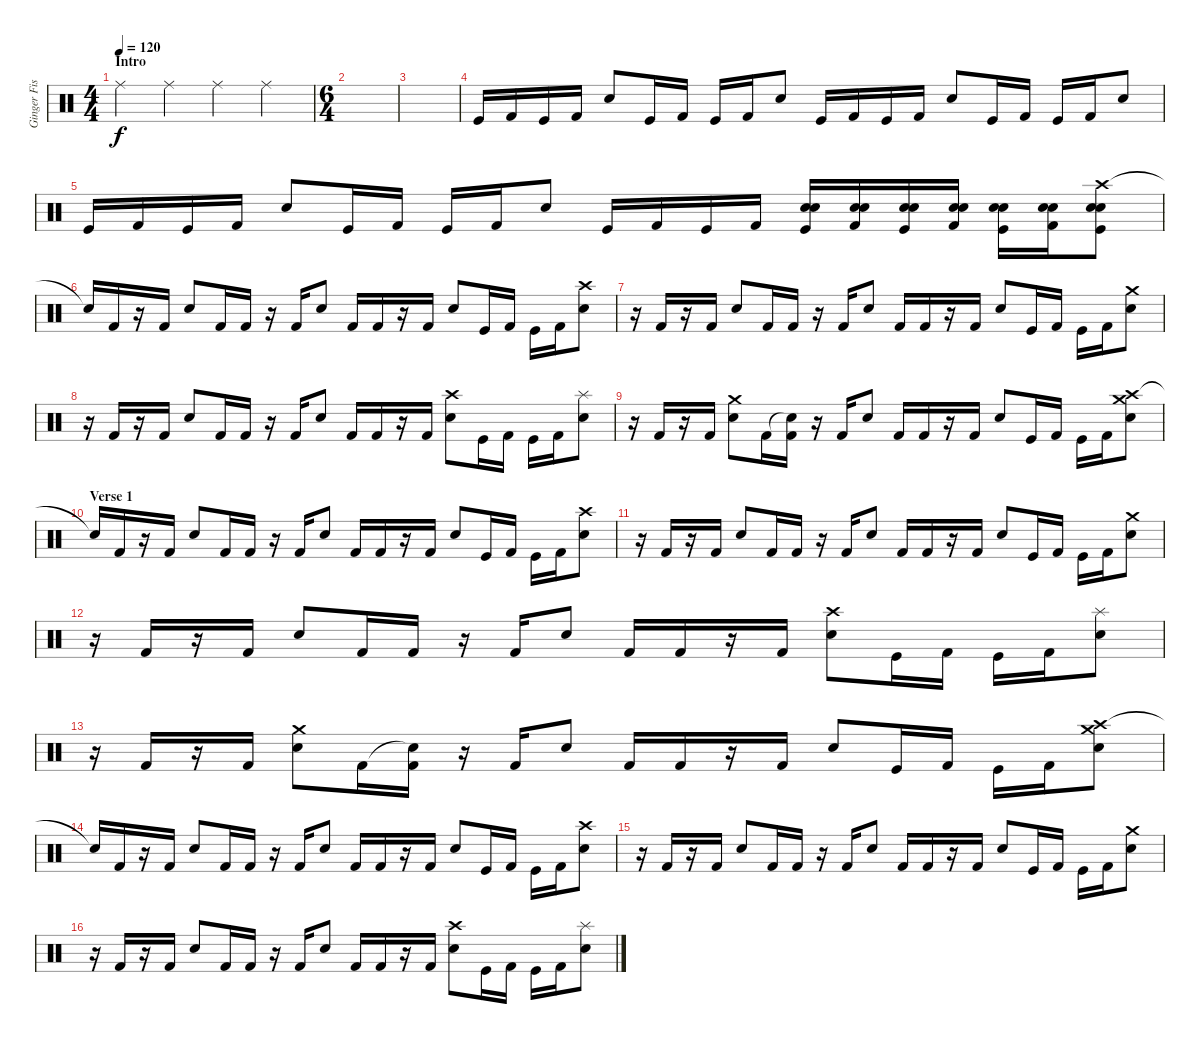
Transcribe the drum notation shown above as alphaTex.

\track ("Ginger Fish" "Ginger Fis") {instrument percussion}
\staff {score}
\articulation defaults
\ts (4 4)
\section ("" "Intro")
\tempo 120
\clef neutral
\ks c "Ride (middle)".4{dy f} "Ride (middle)".4 "Ride (middle)".4 "Ride (middle)".4
|
\ts (6 4)
|
|
"Kick (hit)".16 "Kick (hit) 2".16 "Kick (hit)".16 "Kick (hit) 2".16 "Snare (hit) 2".8 "Kick (hit)".16 "Kick (hit) 2".16 "Kick (hit)".16 "Kick (hit) 2".16 "Snare (hit) 2".8 "Kick (hit)".16 "Kick (hit) 2".16 "Kick (hit)".16 "Kick (hit) 2".16 "Snare (hit) 2".8 "Kick (hit)".16 "Kick (hit) 2".16 "Kick (hit)".16 "Kick (hit) 2".16 "Snare (hit) 2".8 |
"Kick (hit)".16 "Kick (hit) 2".16 "Kick (hit)".16 "Kick (hit) 2".16 "Snare (hit) 2".8 "Kick (hit)".16 "Kick (hit) 2".16 "Kick (hit)".16 "Kick (hit) 2".16 "Snare (hit) 2".8 "Kick (hit)".16 "Kick (hit) 2".16 "Kick (hit)".16 "Kick (hit) 2".16 ("Electric Snare (hit)" "Electric Snare (hit)" "Kick (hit)").16 ("Electric Snare (hit)" "Electric Snare (hit)" "Kick (hit) 2").16 ("Electric Snare (hit)" "Electric Snare (hit)" "Kick (hit)").16 ("Electric Snare (hit)" "Electric Snare (hit)" "Kick (hit) 2").16 ("Electric Snare (hit)" "Electric Snare (hit)" "Kick (hit)").16 ("Electric Snare (hit)" "Electric Snare (hit)" "Kick (hit) 2").16 ("Crash high (hit)" "Electric Snare (hit)" "Electric Snare (hit)" "Kick (hit)").8 |
"Snare (hit)"{t}.16 "Kick (hit) 2".16 r.16 "Kick (hit) 2".16 "Snare (hit) 2".8 "Kick (hit) 2".16 "Kick (hit) 2".16 r.16 "Kick (hit) 2".16 "Snare (hit) 2".8 "Kick (hit) 2".16 "Kick (hit) 2".16 r.16 "Kick (hit) 2".16 "Snare (hit) 2".8 "Kick (hit)".16 "Kick (hit) 2".16 "Kick (hit)".16 "Kick (hit) 2".16 ("Crash high (hit)" "Snare (hit) 2").8 |
r.16 "Kick (hit) 2".16 r.16 "Kick (hit) 2".16 "Snare (hit) 2".8 "Kick (hit) 2".16 "Kick (hit) 2".16 r.16 "Kick (hit) 2".16 "Snare (hit) 2".8 "Kick (hit) 2".16 "Kick (hit) 2".16 r.16 "Kick (hit) 2".16 "Snare (hit) 2".8 "Kick (hit)".16 "Kick (hit) 2".16 "Kick (hit)".16 "Kick (hit) 2".16 ("Crash medium (hit)" "Snare (hit) 2").8 |
r.16 "Kick (hit) 2".16 r.16 "Kick (hit) 2".16 "Snare (hit) 2".8 "Kick (hit) 2".16 "Kick (hit) 2".16 r.16 "Kick (hit) 2".16 "Snare (hit) 2".8 "Kick (hit) 2".16 "Kick (hit) 2".16 r.16 "Kick (hit) 2".16 ("Crash high (hit)" "Snare (hit) 2").8 "Kick (hit)".16 "Kick (hit) 2".16 "Kick (hit)".16 "Kick (hit) 2".16 ("Splash (hit)" "Snare (hit) 2").8 |
r.16 "Kick (hit) 2".16 r.16 "Kick (hit) 2".16 ("Crash medium (hit)" "Snare (hit) 2").8 "Kick (hit) 2".16 ("Snare (hit)"{t} "Kick (hit) 2").16 r.16 "Kick (hit) 2".16 "Snare (hit) 2".8 "Kick (hit) 2".16 "Kick (hit) 2".16 r.16 "Kick (hit) 2".16 "Snare (hit) 2".8 "Kick (hit)".16 "Kick (hit) 2".16 "Kick (hit)".16 "Kick (hit) 2".16 ("Crash high (hit)" "Crash medium (hit)" "Snare (hit) 2").8 |
\section ("" "Verse 1")
"Snare (hit)"{t}.16 "Kick (hit) 2".16 r.16 "Kick (hit) 2".16 "Snare (hit) 2".8 "Kick (hit) 2".16 "Kick (hit) 2".16 r.16 "Kick (hit) 2".16 "Snare (hit) 2".8 "Kick (hit) 2".16 "Kick (hit) 2".16 r.16 "Kick (hit) 2".16 "Snare (hit) 2".8 "Kick (hit)".16 "Kick (hit) 2".16 "Kick (hit)".16 "Kick (hit) 2".16 ("Crash high (hit)" "Snare (hit) 2").8 |
r.16 "Kick (hit) 2".16 r.16 "Kick (hit) 2".16 "Snare (hit) 2".8 "Kick (hit) 2".16 "Kick (hit) 2".16 r.16 "Kick (hit) 2".16 "Snare (hit) 2".8 "Kick (hit) 2".16 "Kick (hit) 2".16 r.16 "Kick (hit) 2".16 "Snare (hit) 2".8 "Kick (hit)".16 "Kick (hit) 2".16 "Kick (hit)".16 "Kick (hit) 2".16 ("Crash medium (hit)" "Snare (hit) 2").8 |
r.16 "Kick (hit) 2".16 r.16 "Kick (hit) 2".16 "Snare (hit) 2".8 "Kick (hit) 2".16 "Kick (hit) 2".16 r.16 "Kick (hit) 2".16 "Snare (hit) 2".8 "Kick (hit) 2".16 "Kick (hit) 2".16 r.16 "Kick (hit) 2".16 ("Crash high (hit)" "Snare (hit) 2").8 "Kick (hit)".16 "Kick (hit) 2".16 "Kick (hit)".16 "Kick (hit) 2".16 ("Splash (hit)" "Snare (hit) 2").8 |
r.16 "Kick (hit) 2".16 r.16 "Kick (hit) 2".16 ("Crash medium (hit)" "Snare (hit) 2").8 "Kick (hit) 2".16 ("Snare (hit)"{t} "Kick (hit) 2").16 r.16 "Kick (hit) 2".16 "Snare (hit) 2".8 "Kick (hit) 2".16 "Kick (hit) 2".16 r.16 "Kick (hit) 2".16 "Snare (hit) 2".8 "Kick (hit)".16 "Kick (hit) 2".16 "Kick (hit)".16 "Kick (hit) 2".16 ("Crash high (hit)" "Crash medium (hit)" "Snare (hit) 2").8 |
"Snare (hit)"{t}.16 "Kick (hit) 2".16 r.16 "Kick (hit) 2".16 "Snare (hit) 2".8 "Kick (hit) 2".16 "Kick (hit) 2".16 r.16 "Kick (hit) 2".16 "Snare (hit) 2".8 "Kick (hit) 2".16 "Kick (hit) 2".16 r.16 "Kick (hit) 2".16 "Snare (hit) 2".8 "Kick (hit)".16 "Kick (hit) 2".16 "Kick (hit)".16 "Kick (hit) 2".16 ("Crash high (hit)" "Snare (hit) 2").8 |
r.16 "Kick (hit) 2".16 r.16 "Kick (hit) 2".16 "Snare (hit) 2".8 "Kick (hit) 2".16 "Kick (hit) 2".16 r.16 "Kick (hit) 2".16 "Snare (hit) 2".8 "Kick (hit) 2".16 "Kick (hit) 2".16 r.16 "Kick (hit) 2".16 "Snare (hit) 2".8 "Kick (hit)".16 "Kick (hit) 2".16 "Kick (hit)".16 "Kick (hit) 2".16 ("Crash medium (hit)" "Snare (hit) 2").8 |
r.16 "Kick (hit) 2".16 r.16 "Kick (hit) 2".16 "Snare (hit) 2".8 "Kick (hit) 2".16 "Kick (hit) 2".16 r.16 "Kick (hit) 2".16 "Snare (hit) 2".8 "Kick (hit) 2".16 "Kick (hit) 2".16 r.16 "Kick (hit) 2".16 ("Crash high (hit)" "Snare (hit) 2").8 "Kick (hit)".16 "Kick (hit) 2".16 "Kick (hit)".16 "Kick (hit) 2".16 ("Splash (hit)" "Snare (hit) 2").8
